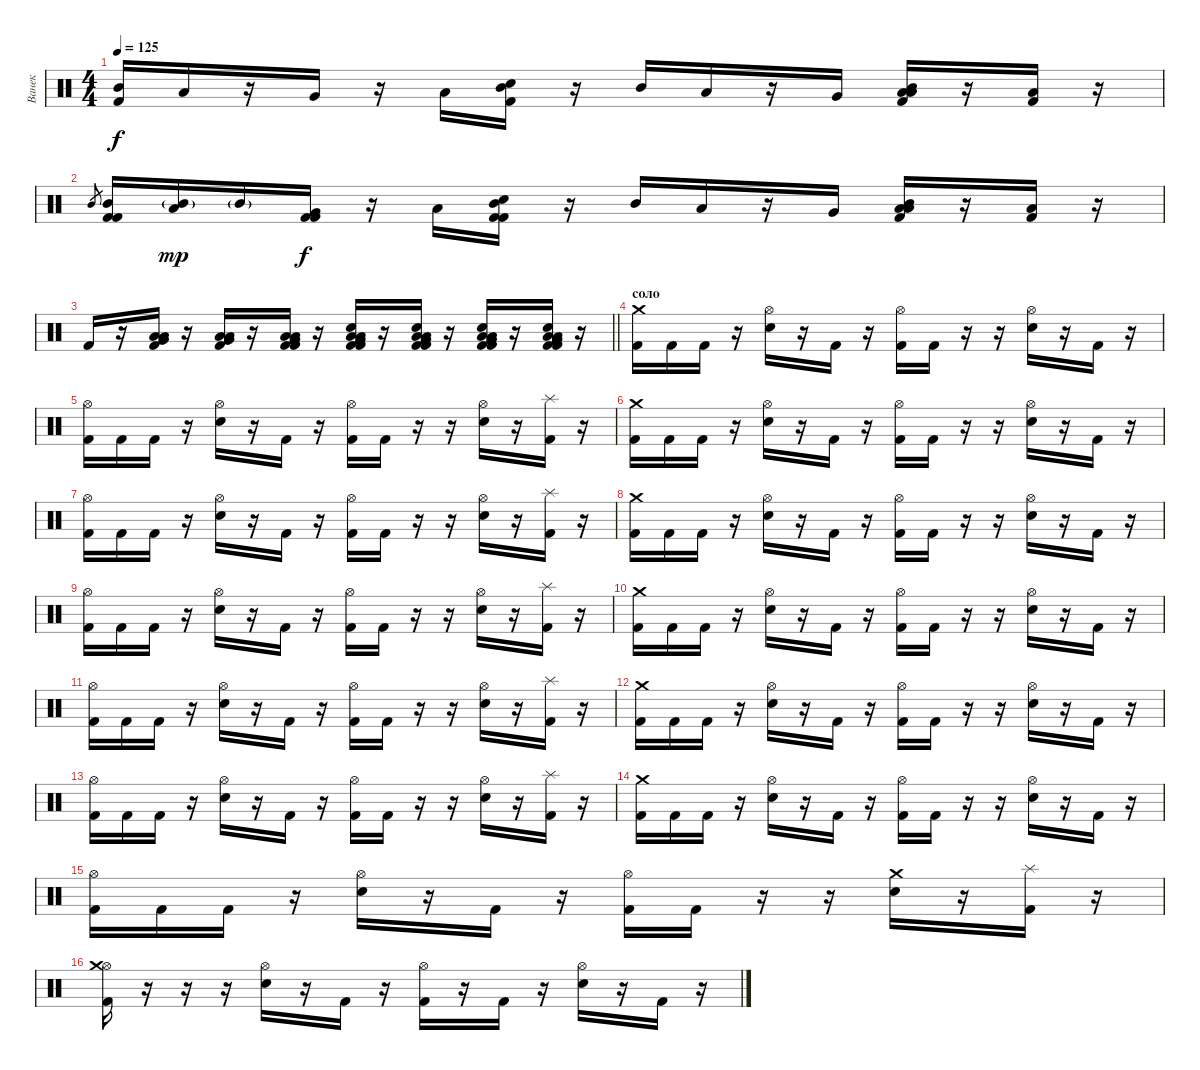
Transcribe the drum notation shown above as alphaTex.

\track ("Ванек" "Ванек") {instrument percussion}
\staff {score}
\articulation defaults
\ts (4 4)
\tempo 125
\clef neutral
\ks c
("Mid Tom (hit)" "Kick (hit) 2").16{dy f} "Low Tom (hit)".16 r.16 "Very Low Tom (hit)".16 r.16 "Low Floor Tom (hit)".16 ("Mid Tom (hit)" "Snare (hit) 2" "Kick (hit) 2").16 r.16 "Mid Tom (hit)".16 "Low Tom (hit)".16 r.16 "Very Low Tom (hit)".16 ("Low Tom (hit)" "Mid Tom (hit)" "Low Floor Tom (hit)" "Kick (hit) 2").16 r.16 ("Low Tom (hit)" "Kick (hit) 2").16 r.16 |
"Mid Tom (hit)".8{gr} ("Mid Tom (hit)" "Kick (hit) 2" "Kick (hit) 2").16 ("Low Tom (hit)" "Mid Tom (hit)"{g}).16{dy mp} "Mid Tom (hit)"{g}.16 ("Very Low Tom (hit)" "Kick (hit) 2" "Kick (hit) 2").16{dy f} r.16 "Low Floor Tom (hit)".16 ("Mid Tom (hit)" "Snare (hit) 2" "Kick (hit) 2" "Kick (hit) 2").16 r.16 "Mid Tom (hit)".16 "Low Tom (hit)".16 r.16 "Very Low Tom (hit)".16 ("Low Tom (hit)" "Mid Tom (hit)" "Low Floor Tom (hit)" "Kick (hit) 2").16 r.16 ("Low Tom (hit)" "Kick (hit) 2").16 r.16 |
\barLineRight lightlight "Kick (hit) 2".16{volume 10}
r.16{volume 16} ("Very Low Tom (hit)" "Low Tom (hit)" "Low Floor Tom (hit)" "Kick (hit) 2").16 r.16 ("Very Low Tom (hit)" "Low Tom (hit)" "Low Floor Tom (hit)" "Kick (hit) 2").16 r.16 ("Very Low Tom (hit)" "Low Tom (hit)" "Low Floor Tom (hit)" "Kick (hit) 2" "Kick (hit) 2").16 r.16 ("Snare (hit) 2" "Very Low Tom (hit)" "Low Tom (hit)" "Low Floor Tom (hit)" "Kick (hit) 2" "Kick (hit) 2").16 r.16 ("Snare (hit) 2" "Very Low Tom (hit)" "Low Tom (hit)" "Low Floor Tom (hit)" "Kick (hit) 2" "Kick (hit) 2").16 r.16 ("Snare (hit) 2" "Very Low Tom (hit)" "Low Tom (hit)" "Low Floor Tom (hit)" "Kick (hit) 2" "Kick (hit) 2").16 r.16 ("Snare (hit) 2" "Very Low Tom (hit)" "Low Tom (hit)" "Low Floor Tom (hit)" "Kick (hit) 2" "Kick (hit) 2").16 r.16 |
\section ("" "соло")
("Crash medium (hit)" "Kick (hit) 2").16 "Kick (hit) 2".16 "Kick (hit) 2".16 r.16 ("Hi-Hat (open)" "Snare (hit) 2").16 r.16 "Kick (hit) 2".16 r.16 ("Hi-Hat (open)" "Kick (hit) 2").16 "Kick (hit) 2".16 r.16 r.16 ("Hi-Hat (open)" "Snare (hit) 2").16 r.16 "Kick (hit) 2".16 r.16 |
("Hi-Hat (open)" "Kick (hit) 2").16 "Kick (hit) 2".16 "Kick (hit) 2".16 r.16 ("Hi-Hat (open)" "Snare (hit) 2").16 r.16 "Kick (hit) 2".16 r.16 ("Hi-Hat (open)" "Kick (hit) 2").16 "Kick (hit) 2".16 r.16 r.16 ("Hi-Hat (open)" "Snare (hit) 2").16 r.16 ("Splash (hit)" "Kick (hit) 2").16 r.16 |
("Crash medium (hit)" "Kick (hit) 2").16 "Kick (hit) 2".16 "Kick (hit) 2".16 r.16 ("Hi-Hat (open)" "Snare (hit) 2").16 r.16 "Kick (hit) 2".16 r.16 ("Hi-Hat (open)" "Kick (hit) 2").16 "Kick (hit) 2".16 r.16 r.16 ("Hi-Hat (open)" "Snare (hit) 2").16 r.16 "Kick (hit) 2".16 r.16 |
("Hi-Hat (open)" "Kick (hit) 2").16 "Kick (hit) 2".16 "Kick (hit) 2".16 r.16 ("Hi-Hat (open)" "Snare (hit) 2").16 r.16 "Kick (hit) 2".16 r.16 ("Hi-Hat (open)" "Kick (hit) 2").16 "Kick (hit) 2".16 r.16 r.16 ("Hi-Hat (open)" "Snare (hit) 2").16 r.16 ("Splash (hit)" "Kick (hit) 2").16 r.16 |
("Crash medium (hit)" "Kick (hit) 2").16 "Kick (hit) 2".16 "Kick (hit) 2".16 r.16 ("Hi-Hat (open)" "Snare (hit) 2").16 r.16 "Kick (hit) 2".16 r.16 ("Hi-Hat (open)" "Kick (hit) 2").16 "Kick (hit) 2".16 r.16 r.16 ("Hi-Hat (open)" "Snare (hit) 2").16 r.16 "Kick (hit) 2".16 r.16 |
("Hi-Hat (open)" "Kick (hit) 2").16 "Kick (hit) 2".16 "Kick (hit) 2".16 r.16 ("Hi-Hat (open)" "Snare (hit) 2").16 r.16 "Kick (hit) 2".16 r.16 ("Hi-Hat (open)" "Kick (hit) 2").16 "Kick (hit) 2".16 r.16 r.16 ("Hi-Hat (open)" "Snare (hit) 2").16 r.16 ("Splash (hit)" "Kick (hit) 2").16 r.16 |
("Crash medium (hit)" "Kick (hit) 2").16 "Kick (hit) 2".16 "Kick (hit) 2".16 r.16 ("Hi-Hat (open)" "Snare (hit) 2").16 r.16 "Kick (hit) 2".16 r.16 ("Hi-Hat (open)" "Kick (hit) 2").16 "Kick (hit) 2".16 r.16 r.16 ("Hi-Hat (open)" "Snare (hit) 2").16 r.16 "Kick (hit) 2".16 r.16 |
("Hi-Hat (open)" "Kick (hit) 2").16 "Kick (hit) 2".16 "Kick (hit) 2".16 r.16 ("Hi-Hat (open)" "Snare (hit) 2").16 r.16 "Kick (hit) 2".16 r.16 ("Hi-Hat (open)" "Kick (hit) 2").16 "Kick (hit) 2".16 r.16 r.16 ("Hi-Hat (open)" "Snare (hit) 2").16 r.16 ("Splash (hit)" "Kick (hit) 2").16 r.16 |
("Crash medium (hit)" "Kick (hit) 2").16 "Kick (hit) 2".16 "Kick (hit) 2".16 r.16 ("Hi-Hat (open)" "Snare (hit) 2").16 r.16 "Kick (hit) 2".16 r.16 ("Hi-Hat (open)" "Kick (hit) 2").16 "Kick (hit) 2".16 r.16 r.16 ("Hi-Hat (open)" "Snare (hit) 2").16 r.16 "Kick (hit) 2".16 r.16 |
("Hi-Hat (open)" "Kick (hit) 2").16 "Kick (hit) 2".16 "Kick (hit) 2".16 r.16 ("Hi-Hat (open)" "Snare (hit) 2").16 r.16 "Kick (hit) 2".16 r.16 ("Hi-Hat (open)" "Kick (hit) 2").16 "Kick (hit) 2".16 r.16 r.16 ("Hi-Hat (open)" "Snare (hit) 2").16 r.16 ("Splash (hit)" "Kick (hit) 2").16 r.16 |
("Crash medium (hit)" "Kick (hit) 2").16 "Kick (hit) 2".16 "Kick (hit) 2".16 r.16 ("Hi-Hat (open)" "Snare (hit) 2").16 r.16 "Kick (hit) 2".16 r.16 ("Hi-Hat (open)" "Kick (hit) 2").16 "Kick (hit) 2".16 r.16 r.16 ("Hi-Hat (open)" "Snare (hit) 2").16 r.16 "Kick (hit) 2".16 r.16 |
("Hi-Hat (open)" "Kick (hit) 2").16 "Kick (hit) 2".16 "Kick (hit) 2".16 r.16 ("Hi-Hat (open)" "Snare (hit) 2").16 r.16 "Kick (hit) 2".16 r.16 ("Hi-Hat (open)" "Kick (hit) 2").16 "Kick (hit) 2".16 r.16 r.16 ("Crash medium (hit)" "Snare (hit) 2").16 r.16 ("Splash (hit)" "Kick (hit) 2").16 r.16 |
("Hi-Hat (open)" "Crash medium (hit)" "Kick (hit) 2").16 r.16 r.16 r.16 ("Hi-Hat (open)" "Snare (hit) 2").16 r.16 "Kick (hit) 2".16 r.16 ("Hi-Hat (open)" "Kick (hit) 2").16 r.16 "Kick (hit) 2".16 r.16 ("Hi-Hat (open)" "Snare (hit) 2").16 r.16 "Kick (hit) 2".16 r.16
